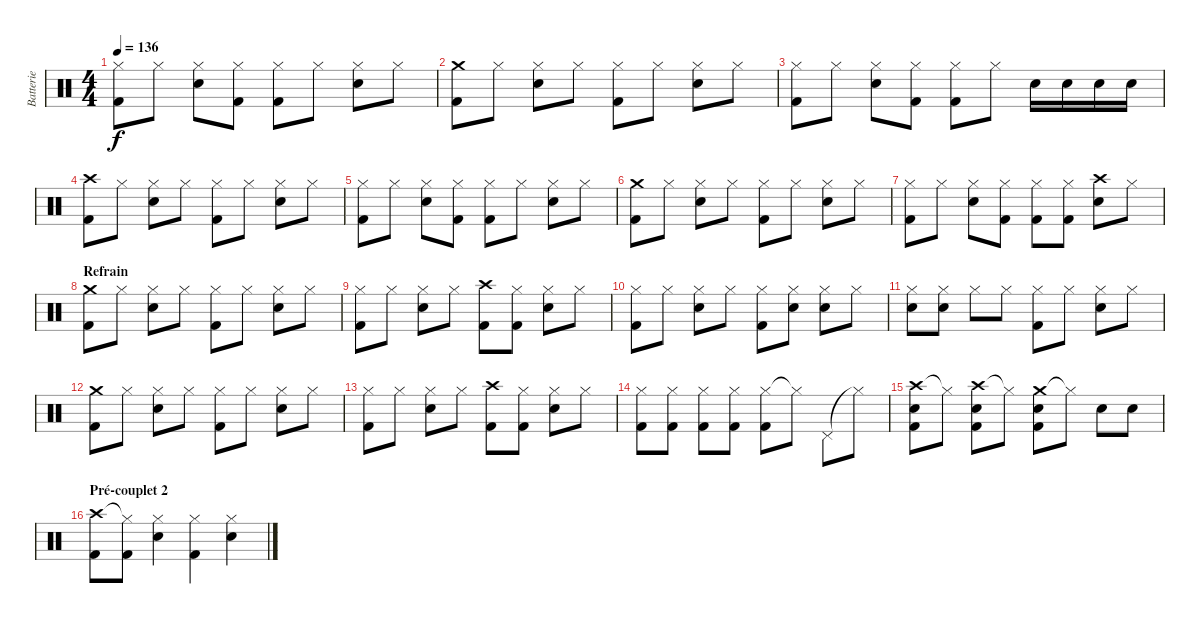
\track ("Batterie" "Batterie") {instrument percussion}
\staff {score}
\articulation defaults
\ts (4 4)
\tempo 136
\clef neutral
\ks c
("Hi-Hat (closed)" "Kick (hit) 2").8{dy f} "Hi-Hat (closed)".8 ("Hi-Hat (closed)" "Snare (hit) 2").8 ("Hi-Hat (closed)" "Kick (hit) 2").8 ("Hi-Hat (closed)" "Kick (hit) 2").8 "Hi-Hat (closed)".8 ("Hi-Hat (closed)" "Snare (hit) 2").8 "Hi-Hat (closed)".8 |
("Crash medium (hit)" "Kick (hit) 2").8 "Hi-Hat (closed)".8 ("Hi-Hat (closed)" "Snare (hit) 2").8 "Hi-Hat (closed)".8 ("Hi-Hat (closed)" "Kick (hit) 2").8 "Hi-Hat (closed)".8 ("Hi-Hat (closed)" "Snare (hit) 2").8 "Hi-Hat (closed)".8 |
("Hi-Hat (closed)" "Kick (hit) 2").8 "Hi-Hat (closed)".8 ("Hi-Hat (closed)" "Snare (hit) 2").8 ("Hi-Hat (closed)" "Kick (hit) 2").8 ("Hi-Hat (closed)" "Kick (hit) 2").8 "Hi-Hat (closed)".8 "Snare (hit) 2".16 "Snare (hit) 2".16 "Snare (hit) 2".16 "Snare (hit) 2".16 |
("Crash high (hit)" "Kick (hit) 2").8 "Hi-Hat (closed)".8 ("Hi-Hat (closed)" "Snare (hit) 2").8 "Hi-Hat (closed)".8 ("Hi-Hat (closed)" "Kick (hit) 2").8 "Hi-Hat (closed)".8 ("Hi-Hat (closed)" "Snare (hit) 2").8 "Hi-Hat (closed)".8 |
("Hi-Hat (closed)" "Kick (hit) 2").8 "Hi-Hat (closed)".8 ("Hi-Hat (closed)" "Snare (hit) 2").8 ("Hi-Hat (closed)" "Kick (hit) 2").8 ("Hi-Hat (closed)" "Kick (hit) 2").8 "Hi-Hat (closed)".8 ("Hi-Hat (closed)" "Snare (hit) 2").8 "Hi-Hat (closed)".8 |
("Crash medium (hit)" "Kick (hit) 2").8 "Hi-Hat (closed)".8 ("Hi-Hat (closed)" "Snare (hit) 2").8 "Hi-Hat (closed)".8 ("Hi-Hat (closed)" "Kick (hit) 2").8 "Hi-Hat (closed)".8 ("Hi-Hat (closed)" "Snare (hit) 2").8 "Hi-Hat (closed)".8 |
("Hi-Hat (closed)" "Kick (hit) 2").8 "Hi-Hat (closed)".8 ("Hi-Hat (closed)" "Snare (hit) 2").8 ("Hi-Hat (closed)" "Kick (hit) 2").8 ("Hi-Hat (closed)" "Kick (hit) 2").8 ("Hi-Hat (closed)" "Kick (hit) 2").8 ("Crash high (hit)" "Snare (hit) 2").8 "Hi-Hat (closed)".8 |
\section ("" "Refrain")
("Crash medium (hit)" "Kick (hit) 2").8 "Hi-Hat (closed)".8 ("Hi-Hat (closed)" "Snare (hit) 2").8 "Hi-Hat (closed)".8 ("Hi-Hat (closed)" "Kick (hit) 2").8 "Hi-Hat (closed)".8 ("Hi-Hat (closed)" "Snare (hit) 2").8 "Hi-Hat (closed)".8 |
("Hi-Hat (closed)" "Kick (hit) 2").8 "Hi-Hat (closed)".8 ("Hi-Hat (closed)" "Snare (hit) 2").8 "Hi-Hat (closed)".8 ("Crash high (hit)" "Kick (hit) 2").8 ("Hi-Hat (closed)" "Kick (hit) 2").8 ("Hi-Hat (closed)" "Snare (hit) 2").8 "Hi-Hat (closed)".8 |
("Hi-Hat (closed)" "Kick (hit) 2").8 "Hi-Hat (closed)".8 ("Hi-Hat (closed)" "Snare (hit) 2").8 "Hi-Hat (closed)".8 ("Hi-Hat (closed)" "Kick (hit) 2").8 ("Hi-Hat (closed)" "Snare (hit) 2").8 ("Hi-Hat (closed)" "Snare (hit) 2").8 "Hi-Hat (closed)".8 |
("Hi-Hat (closed)" "Snare (hit) 2").8 ("Hi-Hat (closed)" "Snare (hit) 2").8 "Hi-Hat (closed)".8 "Hi-Hat (closed)".8 ("Hi-Hat (closed)" "Kick (hit) 2").8 "Hi-Hat (closed)".8 ("Hi-Hat (closed)" "Snare (hit) 2").8 "Hi-Hat (closed)".8 |
("Crash medium (hit)" "Kick (hit) 2").8 "Hi-Hat (closed)".8 ("Hi-Hat (closed)" "Snare (hit) 2").8 "Hi-Hat (closed)".8 ("Hi-Hat (closed)" "Kick (hit) 2").8 "Hi-Hat (closed)".8 ("Hi-Hat (closed)" "Snare (hit) 2").8 "Hi-Hat (closed)".8 |
("Hi-Hat (closed)" "Kick (hit) 2").8 "Hi-Hat (closed)".8 ("Hi-Hat (closed)" "Snare (hit) 2").8 "Hi-Hat (closed)".8 ("Crash high (hit)" "Kick (hit) 2").8 ("Hi-Hat (closed)" "Kick (hit) 2").8 ("Hi-Hat (closed)" "Snare (hit) 2").8 "Hi-Hat (closed)".8 |
("Hi-Hat (closed)" "Kick (hit) 2").8 ("Hi-Hat (closed)" "Kick (hit) 2").8 ("Hi-Hat (closed)" "Kick (hit) 2").8 ("Hi-Hat (closed)" "Kick (hit) 2").8 ("Hi-Hat (closed)" "Kick (hit) 2").8 "Hi-Hat (closed)"{t}.8 "Pedal Hi-Hat (hit)".8 "Hi-Hat (closed)"{t}.8 |
("Crash high (hit)" "Snare (hit) 2" "Kick (hit) 2").8 "Hi-Hat (closed)"{t}.8 ("Crash high (hit)" "Snare (hit) 2" "Kick (hit) 2").8 "Hi-Hat (closed)"{t}.8 ("Crash medium (hit)" "Snare (hit) 2" "Kick (hit) 2").8 "Hi-Hat (closed)"{t}.8 "Snare (hit) 2".8 "Snare (hit) 2".8 |
\section ("" "Pré-couplet 2")
("Crash high (hit)" "Kick (hit) 2").8 ("Hi-Hat (closed)"{t} "Kick (hit) 2").8 ("Hi-Hat (closed)" "Snare (hit) 2").4 ("Hi-Hat (closed)" "Kick (hit) 2").4 ("Hi-Hat (closed)" "Snare (hit) 2").4
